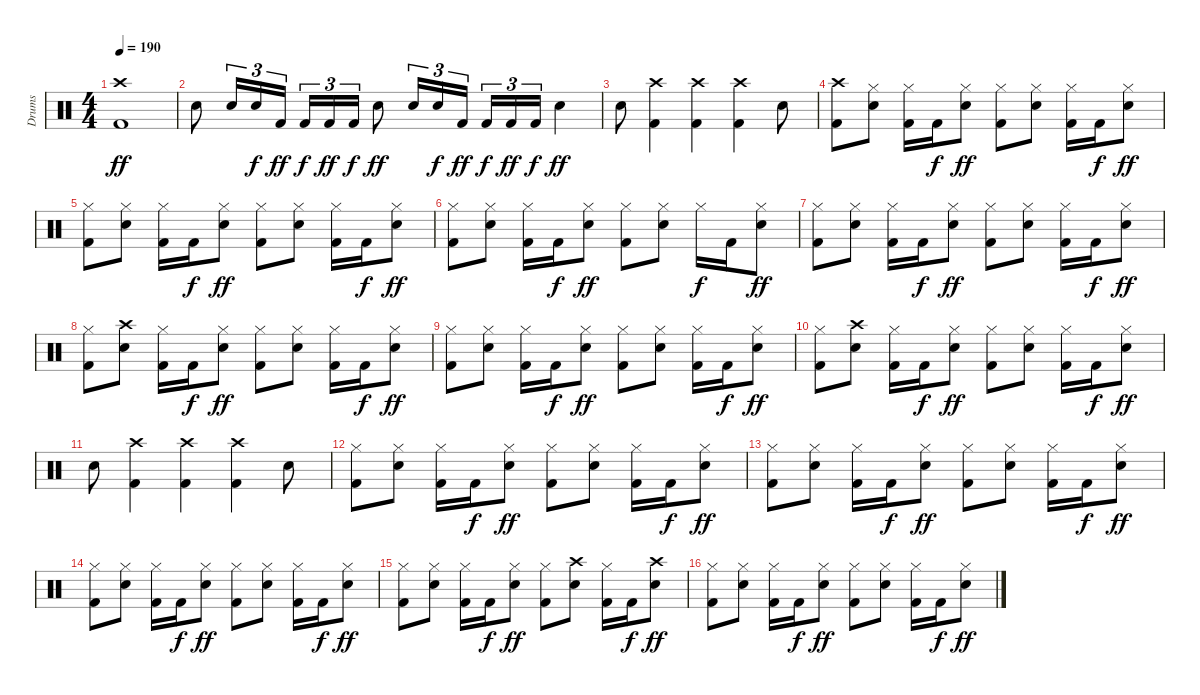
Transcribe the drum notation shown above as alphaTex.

\track ("Drums" "Drums") {instrument percussion}
\staff {score}
\articulation defaults
\ts (4 4)
\tempo 190
\clef neutral
\ks c
("Crash high (hit)" "Kick (hit) 2").1{dy ff} |
"Snare (hit) 2".8 "Snare (hit) 2".16{tu (3 2)} "Snare (hit) 2".16{tu (3 2) dy f} "Kick (hit) 2".16{tu (3 2) dy ff} "Kick (hit) 2".16{tu (3 2) dy f} "Kick (hit) 2".16{tu (3 2) dy ff} "Kick (hit) 2".16{tu (3 2) dy f} "Snare (hit) 2".8{dy ff} "Snare (hit) 2".16{tu (3 2)} "Snare (hit) 2".16{tu (3 2) dy f} "Kick (hit) 2".16{tu (3 2) dy ff beam splitsecondary} "Kick (hit) 2".16{tu (3 2) dy f} "Kick (hit) 2".16{tu (3 2) dy ff} "Kick (hit) 2".16{tu (3 2) dy f} "Snare (hit) 2".4{dy ff} |
"Snare (hit) 2".8 ("Crash high (hit)" "Kick (hit) 2").4 ("Crash high (hit)" "Kick (hit) 2").4 ("Crash high (hit)" "Kick (hit) 2").4 "Snare (hit) 2".8 |
("Crash high (hit)" "Kick (hit) 2").8 ("Hi-Hat (closed)" "Snare (hit) 2").8 ("Hi-Hat (closed)" "Kick (hit) 2").16 "Kick (hit) 2".16{dy f} ("Hi-Hat (closed)" "Snare (hit) 2").8{dy ff} ("Hi-Hat (closed)" "Kick (hit) 2").8 ("Hi-Hat (closed)" "Snare (hit) 2").8 ("Hi-Hat (closed)" "Kick (hit) 2").16 "Kick (hit) 2".16{dy f} ("Hi-Hat (closed)" "Snare (hit) 2").8{dy ff} |
("Hi-Hat (closed)" "Kick (hit) 2").8 ("Hi-Hat (closed)" "Snare (hit) 2").8 ("Hi-Hat (closed)" "Kick (hit) 2").16 "Kick (hit) 2".16{dy f} ("Hi-Hat (closed)" "Snare (hit) 2").8{dy ff} ("Hi-Hat (closed)" "Kick (hit) 2").8 ("Hi-Hat (closed)" "Snare (hit) 2").8 ("Hi-Hat (closed)" "Kick (hit) 2").16 "Kick (hit) 2".16{dy f} ("Hi-Hat (closed)" "Snare (hit) 2").8{dy ff} |
("Hi-Hat (closed)" "Kick (hit) 2").8 ("Hi-Hat (closed)" "Snare (hit) 2").8 ("Hi-Hat (closed)" "Kick (hit) 2").16 "Kick (hit) 2".16{dy f} ("Hi-Hat (closed)" "Snare (hit) 2").8{dy ff} ("Hi-Hat (closed)" "Kick (hit) 2").8 ("Hi-Hat (closed)" "Snare (hit) 2").8 "Hi-Hat (closed)".16{dy f} "Kick (hit) 2".16 ("Hi-Hat (closed)" "Snare (hit) 2").8{dy ff} |
("Hi-Hat (closed)" "Kick (hit) 2").8 ("Hi-Hat (closed)" "Snare (hit) 2").8 ("Hi-Hat (closed)" "Kick (hit) 2").16 "Kick (hit) 2".16{dy f} ("Hi-Hat (closed)" "Snare (hit) 2").8{dy ff} ("Hi-Hat (closed)" "Kick (hit) 2").8 ("Hi-Hat (closed)" "Snare (hit) 2").8 ("Hi-Hat (closed)" "Kick (hit) 2").16 "Kick (hit) 2".16{dy f} ("Hi-Hat (closed)" "Snare (hit) 2").8{dy ff} |
("Hi-Hat (closed)" "Kick (hit) 2").8 ("Crash high (hit)" "Snare (hit) 2").8 ("Hi-Hat (closed)" "Kick (hit) 2").16 "Kick (hit) 2".16{dy f} ("Hi-Hat (closed)" "Snare (hit) 2").8{dy ff} ("Hi-Hat (closed)" "Kick (hit) 2").8 ("Hi-Hat (closed)" "Snare (hit) 2").8 ("Hi-Hat (closed)" "Kick (hit) 2").16 "Kick (hit) 2".16{dy f} ("Hi-Hat (closed)" "Snare (hit) 2").8{dy ff} |
("Hi-Hat (closed)" "Kick (hit) 2").8 ("Hi-Hat (closed)" "Snare (hit) 2").8 ("Hi-Hat (closed)" "Kick (hit) 2").16 "Kick (hit) 2".16{dy f} ("Hi-Hat (closed)" "Snare (hit) 2").8{dy ff} ("Hi-Hat (closed)" "Kick (hit) 2").8 ("Hi-Hat (closed)" "Snare (hit) 2").8 ("Hi-Hat (closed)" "Kick (hit) 2").16 "Kick (hit) 2".16{dy f} ("Hi-Hat (closed)" "Snare (hit) 2").8{dy ff} |
("Hi-Hat (closed)" "Kick (hit) 2").8 ("Crash high (hit)" "Snare (hit) 2").8 ("Hi-Hat (closed)" "Kick (hit) 2").16 "Kick (hit) 2".16{dy f} ("Hi-Hat (closed)" "Snare (hit) 2").8{dy ff} ("Hi-Hat (closed)" "Kick (hit) 2").8 ("Hi-Hat (closed)" "Snare (hit) 2").8 ("Hi-Hat (closed)" "Kick (hit) 2").16 "Kick (hit) 2".16{dy f} ("Hi-Hat (closed)" "Snare (hit) 2").8{dy ff} |
"Snare (hit) 2".8 ("Crash high (hit)" "Kick (hit) 2").4 ("Crash high (hit)" "Kick (hit) 2").4 ("Crash high (hit)" "Kick (hit) 2").4 "Snare (hit) 2".8 |
("Hi-Hat (closed)" "Kick (hit) 2").8 ("Hi-Hat (closed)" "Snare (hit) 2").8 ("Hi-Hat (closed)" "Kick (hit) 2").16 "Kick (hit) 2".16{dy f} ("Hi-Hat (closed)" "Snare (hit) 2").8{dy ff} ("Hi-Hat (closed)" "Kick (hit) 2").8 ("Hi-Hat (closed)" "Snare (hit) 2").8 ("Hi-Hat (closed)" "Kick (hit) 2").16 "Kick (hit) 2".16{dy f} ("Hi-Hat (closed)" "Snare (hit) 2").8{dy ff} |
("Hi-Hat (closed)" "Kick (hit) 2").8 ("Hi-Hat (closed)" "Snare (hit) 2").8 ("Hi-Hat (closed)" "Kick (hit) 2").16 "Kick (hit) 2".16{dy f} ("Hi-Hat (closed)" "Snare (hit) 2").8{dy ff} ("Hi-Hat (closed)" "Kick (hit) 2").8 ("Hi-Hat (closed)" "Snare (hit) 2").8 ("Hi-Hat (closed)" "Kick (hit) 2").16 "Kick (hit) 2".16{dy f} ("Hi-Hat (closed)" "Snare (hit) 2").8{dy ff} |
("Hi-Hat (closed)" "Kick (hit) 2").8 ("Hi-Hat (closed)" "Snare (hit) 2").8 ("Hi-Hat (closed)" "Kick (hit) 2").16 "Kick (hit) 2".16{dy f} ("Hi-Hat (closed)" "Snare (hit) 2").8{dy ff} ("Hi-Hat (closed)" "Kick (hit) 2").8 ("Hi-Hat (closed)" "Snare (hit) 2").8 ("Hi-Hat (closed)" "Kick (hit) 2").16 "Kick (hit) 2".16{dy f} ("Hi-Hat (closed)" "Snare (hit) 2").8{dy ff} |
("Hi-Hat (closed)" "Kick (hit) 2").8 ("Hi-Hat (closed)" "Snare (hit) 2").8 ("Hi-Hat (closed)" "Kick (hit) 2").16 "Kick (hit) 2".16{dy f} ("Hi-Hat (closed)" "Snare (hit) 2").8{dy ff} ("Hi-Hat (closed)" "Kick (hit) 2").8 ("Crash high (hit)" "Snare (hit) 2").8 ("Hi-Hat (closed)" "Kick (hit) 2").16 "Kick (hit) 2".16{dy f} ("Crash high (hit)" "Snare (hit) 2").8{dy ff} |
("Hi-Hat (closed)" "Kick (hit) 2").8 ("Hi-Hat (closed)" "Snare (hit) 2").8 ("Hi-Hat (closed)" "Kick (hit) 2").16 "Kick (hit) 2".16{dy f} ("Hi-Hat (closed)" "Snare (hit) 2").8{dy ff} ("Hi-Hat (closed)" "Kick (hit) 2").8 ("Hi-Hat (closed)" "Snare (hit) 2").8 ("Hi-Hat (closed)" "Kick (hit) 2").16 "Kick (hit) 2".16{dy f} ("Hi-Hat (closed)" "Snare (hit) 2").8{dy ff}
